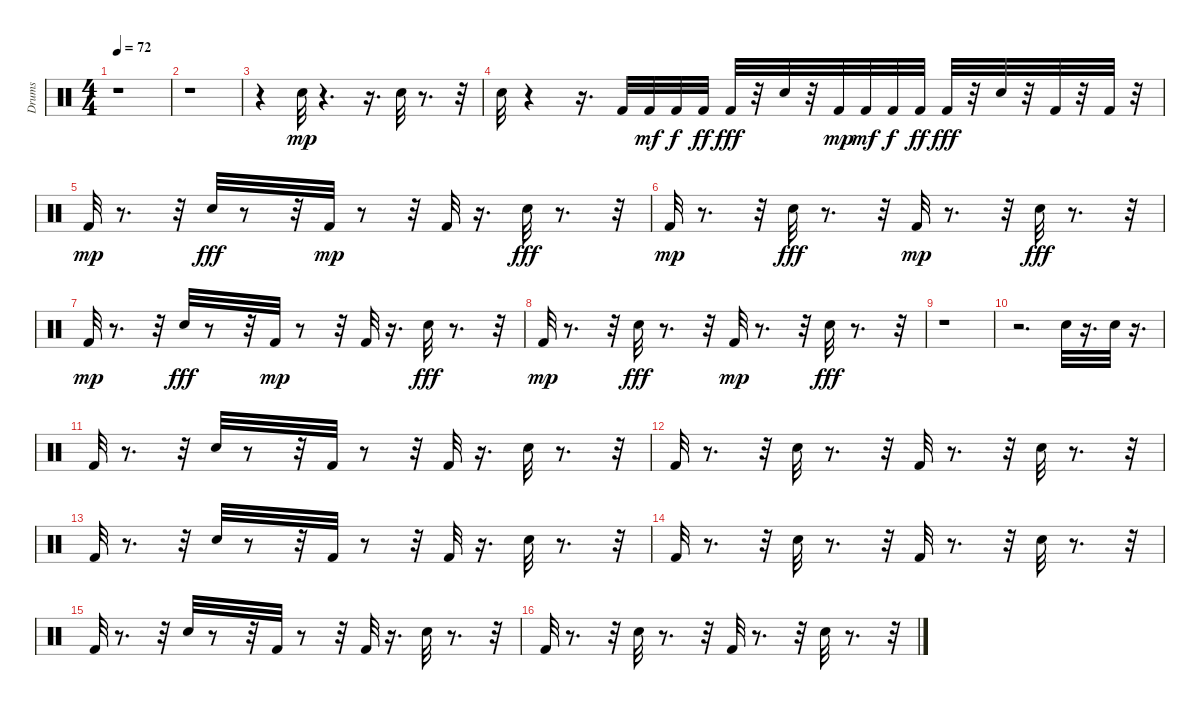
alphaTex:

\track ("Drums" "Drums") {instrument percussion}
\staff {score}
\articulation defaults
\ts (4 4)
\tempo 72
\clef neutral
\ks c
r.1{dy mp} |
r.1 |
r.4 "Snare (hit) 2".32 r.4{d} r.16{d} "Snare (hit) 2".32 r.8{d} r.32 |
"Snare (hit) 2".32 r.4 r.16{d} "Kick (hit) 2".32 "Kick (hit) 2".32{dy mf} "Kick (hit) 2".32{dy f} "Kick (hit) 2".32{dy ff} "Kick (hit) 2".32{dy fff} r.32 "Snare (hit) 2".32 r.32 "Kick (hit) 2".32{dy mp} "Kick (hit) 2".32{dy mf} "Kick (hit) 2".32{dy f} "Kick (hit) 2".32{dy ff} "Kick (hit) 2".32{dy fff} r.32 "Snare (hit) 2".32 r.32 "Kick (hit) 2".32 r.32 "Kick (hit) 2".32 r.32 |
"Kick (hit) 2".32{dy mp} r.8{d} r.32 "Snare (hit) 2".32{dy fff} r.8 r.32 "Kick (hit) 2".32{dy mp} r.8 r.32 "Kick (hit) 2".32 r.16{d} "Snare (hit) 2".32{dy fff} r.8{d} r.32 |
"Kick (hit) 2".32{dy mp} r.8{d} r.32 "Snare (hit) 2".32{dy fff} r.8{d} r.32 "Kick (hit) 2".32{dy mp} r.8{d} r.32 "Snare (hit) 2".32{dy fff} r.8{d} r.32 |
"Kick (hit) 2".32{dy mp} r.8{d} r.32 "Snare (hit) 2".32{dy fff} r.8 r.32 "Kick (hit) 2".32{dy mp} r.8 r.32 "Kick (hit) 2".32 r.16{d} "Snare (hit) 2".32{dy fff} r.8{d} r.32 |
"Kick (hit) 2".32{dy mp} r.8{d} r.32 "Snare (hit) 2".32{dy fff} r.8{d} r.32 "Kick (hit) 2".32{dy mp} r.8{d} r.32 "Snare (hit) 2".32{dy fff} r.8{d} r.32 |
r.1 |
r.2{d} "Snare (hit) 2".32 r.16{d} "Snare (hit) 2".32 r.16{d} |
"Kick (hit) 2".32 r.8{d} r.32 "Snare (hit) 2".32 r.8 r.32 "Kick (hit) 2".32 r.8 r.32 "Kick (hit) 2".32 r.16{d} "Snare (hit) 2".32 r.8{d} r.32 |
"Kick (hit) 2".32 r.8{d} r.32 "Snare (hit) 2".32 r.8{d} r.32 "Kick (hit) 2".32 r.8{d} r.32 "Snare (hit) 2".32 r.8{d} r.32 |
"Kick (hit) 2".32 r.8{d} r.32 "Snare (hit) 2".32 r.8 r.32 "Kick (hit) 2".32 r.8 r.32 "Kick (hit) 2".32 r.16{d} "Snare (hit) 2".32 r.8{d} r.32 |
"Kick (hit) 2".32 r.8{d} r.32 "Snare (hit) 2".32 r.8{d} r.32 "Kick (hit) 2".32 r.8{d} r.32 "Snare (hit) 2".32 r.8{d} r.32 |
"Kick (hit) 2".32 r.8{d} r.32 "Snare (hit) 2".32 r.8 r.32 "Kick (hit) 2".32 r.8 r.32 "Kick (hit) 2".32 r.16{d} "Snare (hit) 2".32 r.8{d} r.32 |
"Kick (hit) 2".32 r.8{d} r.32 "Snare (hit) 2".32 r.8{d} r.32 "Kick (hit) 2".32 r.8{d} r.32 "Snare (hit) 2".32 r.8{d} r.32
